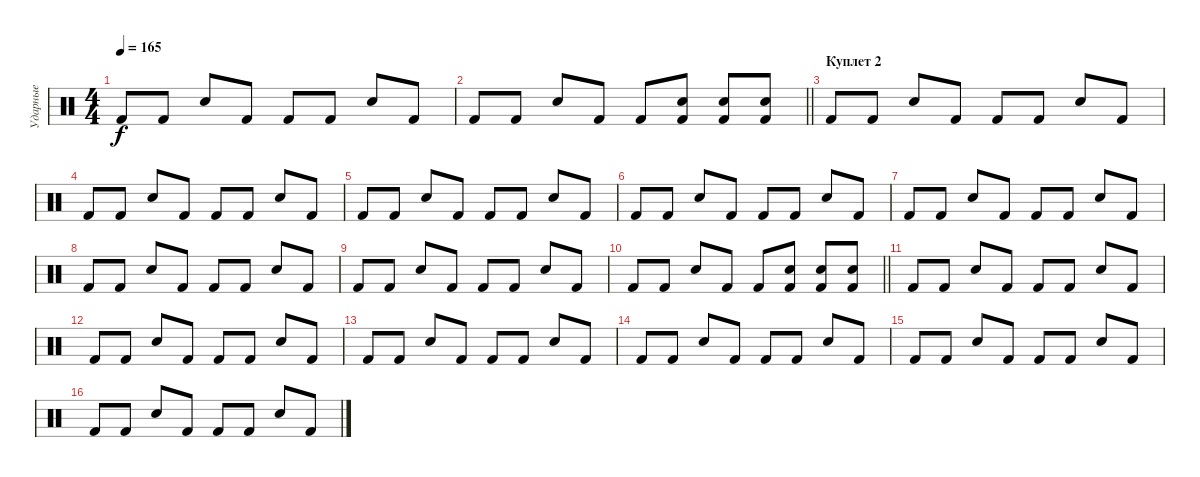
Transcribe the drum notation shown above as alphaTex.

\track ("Ударные" "Ударные") {instrument percussion}
\staff {score}
\articulation defaults
\ts (4 4)
\tempo 165
\clef neutral
\ks c "Kick (hit) 2".8{dy f} "Kick (hit) 2".8 "Snare (hit) 2".8 "Kick (hit) 2".8 "Kick (hit) 2".8 "Kick (hit) 2".8 "Snare (hit) 2".8 "Kick (hit) 2".8
|
\barLineRight lightlight "Kick (hit) 2".8 "Kick (hit) 2".8 "Snare (hit) 2".8 "Kick (hit) 2".8 "Kick (hit) 2".8
("Kick (hit) 2" "Snare (hit) 2").8 ("Kick (hit) 2" "Snare (hit) 2").8 ("Kick (hit) 2" "Snare (hit) 2").8 |
\section ("" "Куплет 2")
"Kick (hit) 2".8 "Kick (hit) 2".8 "Snare (hit) 2".8 "Kick (hit) 2".8 "Kick (hit) 2".8 "Kick (hit) 2".8 "Snare (hit) 2".8 "Kick (hit) 2".8 |
"Kick (hit) 2".8 "Kick (hit) 2".8 "Snare (hit) 2".8 "Kick (hit) 2".8 "Kick (hit) 2".8 "Kick (hit) 2".8 "Snare (hit) 2".8 "Kick (hit) 2".8 |
"Kick (hit) 2".8 "Kick (hit) 2".8 "Snare (hit) 2".8 "Kick (hit) 2".8 "Kick (hit) 2".8 "Kick (hit) 2".8 "Snare (hit) 2".8 "Kick (hit) 2".8 |
"Kick (hit) 2".8 "Kick (hit) 2".8 "Snare (hit) 2".8 "Kick (hit) 2".8 "Kick (hit) 2".8 "Kick (hit) 2".8 "Snare (hit) 2".8 "Kick (hit) 2".8 |
"Kick (hit) 2".8 "Kick (hit) 2".8 "Snare (hit) 2".8 "Kick (hit) 2".8 "Kick (hit) 2".8 "Kick (hit) 2".8 "Snare (hit) 2".8 "Kick (hit) 2".8 |
"Kick (hit) 2".8 "Kick (hit) 2".8 "Snare (hit) 2".8 "Kick (hit) 2".8 "Kick (hit) 2".8 "Kick (hit) 2".8 "Snare (hit) 2".8 "Kick (hit) 2".8 |
"Kick (hit) 2".8 "Kick (hit) 2".8 "Snare (hit) 2".8 "Kick (hit) 2".8 "Kick (hit) 2".8 "Kick (hit) 2".8 "Snare (hit) 2".8 "Kick (hit) 2".8 |
\barLineRight lightlight "Kick (hit) 2".8 "Kick (hit) 2".8 "Snare (hit) 2".8 "Kick (hit) 2".8 "Kick (hit) 2".8
("Kick (hit) 2" "Snare (hit) 2").8 ("Kick (hit) 2" "Snare (hit) 2").8 ("Kick (hit) 2" "Snare (hit) 2").8 |
"Kick (hit) 2".8 "Kick (hit) 2".8 "Snare (hit) 2".8 "Kick (hit) 2".8 "Kick (hit) 2".8 "Kick (hit) 2".8 "Snare (hit) 2".8 "Kick (hit) 2".8 |
"Kick (hit) 2".8 "Kick (hit) 2".8 "Snare (hit) 2".8 "Kick (hit) 2".8 "Kick (hit) 2".8 "Kick (hit) 2".8 "Snare (hit) 2".8 "Kick (hit) 2".8 |
"Kick (hit) 2".8 "Kick (hit) 2".8 "Snare (hit) 2".8 "Kick (hit) 2".8 "Kick (hit) 2".8 "Kick (hit) 2".8 "Snare (hit) 2".8 "Kick (hit) 2".8 |
"Kick (hit) 2".8 "Kick (hit) 2".8 "Snare (hit) 2".8 "Kick (hit) 2".8 "Kick (hit) 2".8 "Kick (hit) 2".8 "Snare (hit) 2".8 "Kick (hit) 2".8 |
"Kick (hit) 2".8 "Kick (hit) 2".8 "Snare (hit) 2".8 "Kick (hit) 2".8 "Kick (hit) 2".8 "Kick (hit) 2".8 "Snare (hit) 2".8 "Kick (hit) 2".8 |
"Kick (hit) 2".8 "Kick (hit) 2".8 "Snare (hit) 2".8 "Kick (hit) 2".8 "Kick (hit) 2".8 "Kick (hit) 2".8 "Snare (hit) 2".8 "Kick (hit) 2".8
